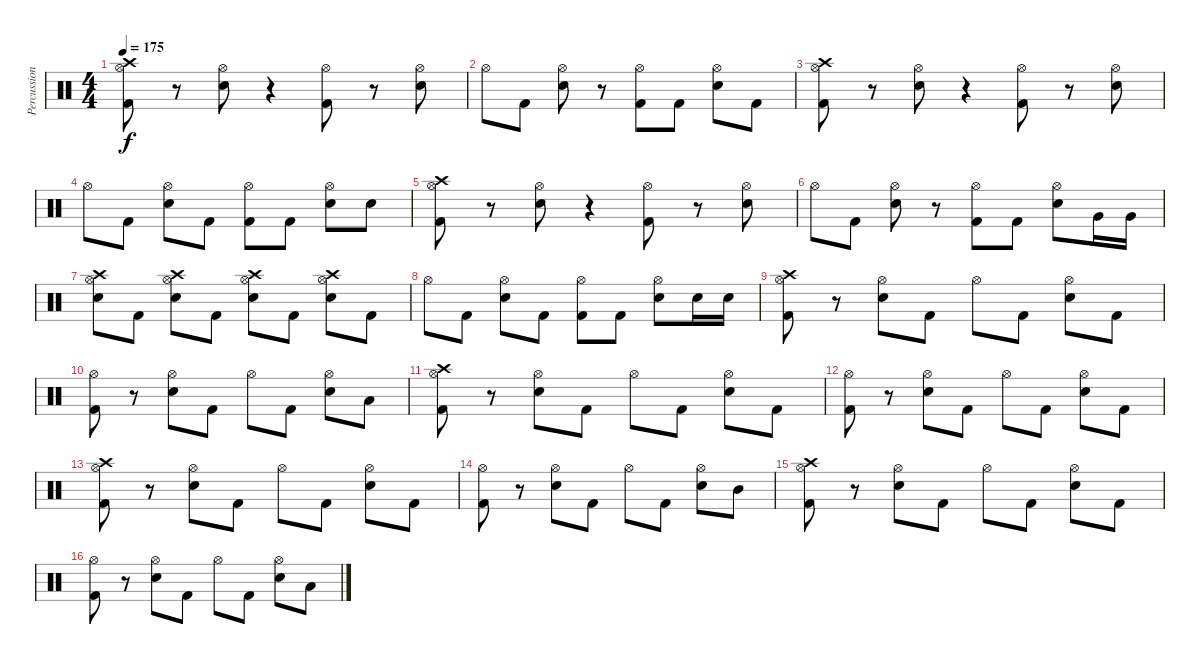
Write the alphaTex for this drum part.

\track ("Percussion" "Percussion") {instrument percussion}
\staff {score}
\articulation defaults
\ts (4 4)
\tempo 175
\clef neutral
\ks c
("Crash high (hit)" "Hi-Hat (open)" "Kick (hit) 2").8{dy f} r.8 ("Hi-Hat (open)" "Electric Snare (hit)").8 r.4 ("Hi-Hat (open)" "Kick (hit) 2").8 r.8 ("Hi-Hat (open)" "Electric Snare (hit)").8 |
"Hi-Hat (open)".8 "Kick (hit) 2".8 ("Hi-Hat (open)" "Electric Snare (hit)").8 r.8 ("Hi-Hat (open)" "Kick (hit) 2").8 "Kick (hit) 2".8 ("Hi-Hat (open)" "Electric Snare (hit)").8 "Kick (hit) 2".8 |
("Crash high (hit)" "Hi-Hat (open)" "Kick (hit) 2").8 r.8 ("Hi-Hat (open)" "Electric Snare (hit)").8 r.4 ("Hi-Hat (open)" "Kick (hit) 2").8 r.8 ("Hi-Hat (open)" "Electric Snare (hit)").8 |
"Hi-Hat (open)".8 "Kick (hit) 2".8 ("Hi-Hat (open)" "Electric Snare (hit)").8 "Kick (hit) 2".8 ("Hi-Hat (open)" "Kick (hit) 2").8 "Kick (hit) 2".8 ("Hi-Hat (open)" "Electric Snare (hit)").8 "Electric Snare (hit)".8 |
("Crash high (hit)" "Hi-Hat (open)" "Kick (hit) 2").8 r.8 ("Hi-Hat (open)" "Electric Snare (hit)").8 r.4 ("Hi-Hat (open)" "Kick (hit) 2").8 r.8 ("Hi-Hat (open)" "Electric Snare (hit)").8 |
"Hi-Hat (open)".8 "Kick (hit) 2".8 ("Hi-Hat (open)" "Electric Snare (hit)").8 r.8 ("Hi-Hat (open)" "Kick (hit) 2").8 "Kick (hit) 2".8 ("Hi-Hat (open)" "Electric Snare (hit)").8 "Very Low Tom (hit)".16 "Very Low Tom (hit)".16 |
("Crash high (hit)" "Hi-Hat (open)" "Electric Snare (hit)").8 "Kick (hit) 2".8 ("Crash high (hit)" "Hi-Hat (open)" "Electric Snare (hit)").8 "Kick (hit) 2".8 ("Crash high (hit)" "Hi-Hat (open)" "Electric Snare (hit)").8 "Kick (hit) 2".8 ("Crash high (hit)" "Hi-Hat (open)" "Electric Snare (hit)").8 "Kick (hit) 2".8 |
"Hi-Hat (open)".8 "Kick (hit) 2".8 ("Hi-Hat (open)" "Electric Snare (hit)").8 "Kick (hit) 2".8 ("Hi-Hat (open)" "Kick (hit) 2").8 "Kick (hit) 2".8 ("Hi-Hat (open)" "Electric Snare (hit)").8 "Electric Snare (hit)".16 "Electric Snare (hit)".16 |
("Crash high (hit)" "Hi-Hat (open)" "Kick (hit) 2").8 r.8 ("Hi-Hat (open)" "Electric Snare (hit)").8 "Kick (hit) 2".8 "Hi-Hat (open)".8 "Kick (hit) 2".8 ("Hi-Hat (open)" "Electric Snare (hit)").8 "Kick (hit) 2".8 |
("Hi-Hat (open)" "Kick (hit) 2").8 r.8 ("Hi-Hat (open)" "Electric Snare (hit)").8 "Kick (hit) 2".8 "Hi-Hat (open)".8 "Kick (hit) 2".8 ("Hi-Hat (open)" "Electric Snare (hit)").8 "Low Tom (hit)".8 |
("Crash high (hit)" "Hi-Hat (open)" "Kick (hit) 2").8 r.8 ("Hi-Hat (open)" "Electric Snare (hit)").8 "Kick (hit) 2".8 "Hi-Hat (open)".8 "Kick (hit) 2".8 ("Hi-Hat (open)" "Electric Snare (hit)").8 "Kick (hit) 2".8 |
("Hi-Hat (open)" "Kick (hit) 2").8 r.8 ("Hi-Hat (open)" "Electric Snare (hit)").8 "Kick (hit) 2".8 "Hi-Hat (open)".8 "Kick (hit) 2".8 ("Hi-Hat (open)" "Electric Snare (hit)").8 "Kick (hit) 2".8 |
("Crash high (hit)" "Hi-Hat (open)" "Kick (hit) 2").8 r.8 ("Hi-Hat (open)" "Electric Snare (hit)").8 "Kick (hit) 2".8 "Hi-Hat (open)".8 "Kick (hit) 2".8 ("Hi-Hat (open)" "Electric Snare (hit)").8 "Kick (hit) 2".8 |
("Hi-Hat (open)" "Kick (hit) 2").8 r.8 ("Hi-Hat (open)" "Electric Snare (hit)").8 "Kick (hit) 2".8 "Hi-Hat (open)".8 "Kick (hit) 2".8 ("Hi-Hat (open)" "Electric Snare (hit)").8 "Mid Tom (hit)".8 |
("Crash high (hit)" "Hi-Hat (open)" "Kick (hit) 2").8 r.8 ("Hi-Hat (open)" "Electric Snare (hit)").8 "Kick (hit) 2".8 "Hi-Hat (open)".8 "Kick (hit) 2".8 ("Hi-Hat (open)" "Electric Snare (hit)").8 "Kick (hit) 2".8 |
("Hi-Hat (open)" "Kick (hit) 2").8 r.8 ("Hi-Hat (open)" "Electric Snare (hit)").8 "Kick (hit) 2".8 "Hi-Hat (open)".8 "Kick (hit) 2".8 ("Hi-Hat (open)" "Electric Snare (hit)").8 "Low Tom (hit)".8
